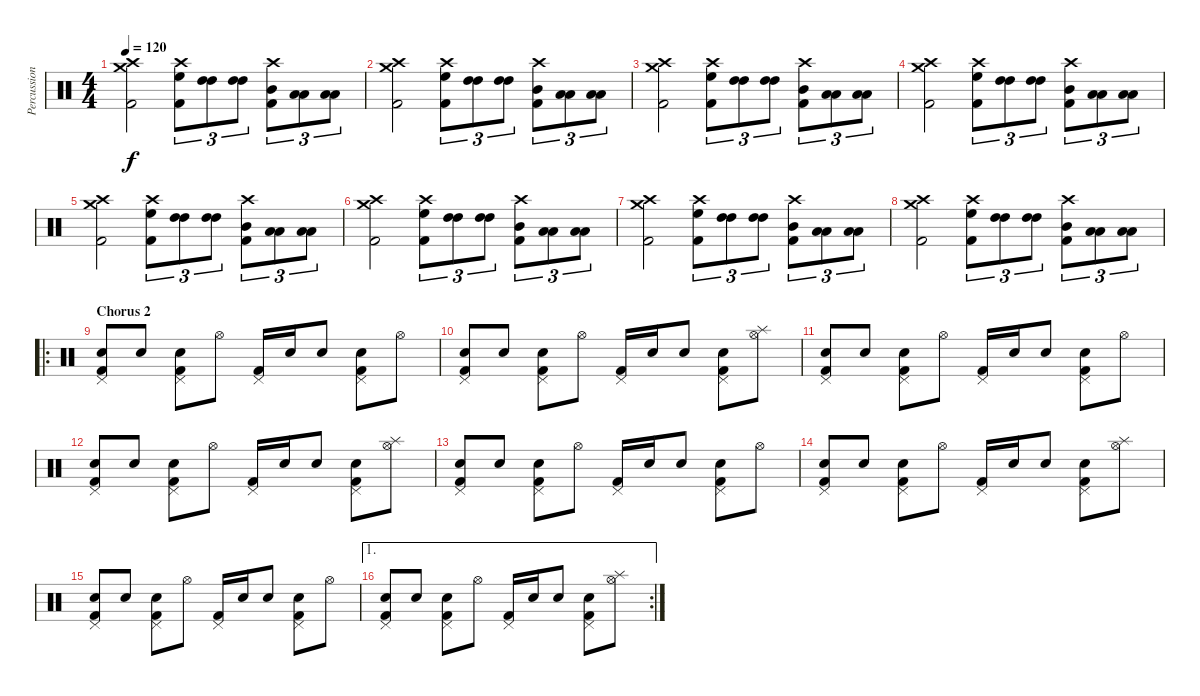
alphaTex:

\track ("Percussion" "Percussion") {instrument percussion}
\staff {score}
\articulation defaults
\ts (4 4)
\tempo 120
\clef neutral
\ks c
("Crash medium (hit)" "Crash high (hit)" "Kick (hit) 2").2{dy f} ("High Floor Tom (hit)" "Crash high (hit)" "Kick (hit) 2").8{tu (3 2)} ("High Tom (hit)" "High Tom (hit)").8{tu (3 2)} ("High Tom (hit)" "High Tom (hit)").8{tu (3 2)} ("Mid Tom (hit)" "Crash high (hit)" "Kick (hit) 2").8{tu (3 2)} ("Low Tom (hit)" "Low Tom (hit)").8{tu (3 2)} ("Low Tom (hit)" "Low Tom (hit)").8{tu (3 2)} |
("Crash medium (hit)" "Crash high (hit)" "Kick (hit) 2").2 ("High Floor Tom (hit)" "Crash high (hit)" "Kick (hit) 2").8{tu (3 2)} ("High Tom (hit)" "High Tom (hit)").8{tu (3 2)} ("High Tom (hit)" "High Tom (hit)").8{tu (3 2)} ("Mid Tom (hit)" "Crash high (hit)" "Kick (hit) 2").8{tu (3 2)} ("Low Tom (hit)" "Low Tom (hit)").8{tu (3 2)} ("Low Tom (hit)" "Low Tom (hit)").8{tu (3 2)} |
("Crash medium (hit)" "Crash high (hit)" "Kick (hit) 2").2 ("High Floor Tom (hit)" "Crash high (hit)" "Kick (hit) 2").8{tu (3 2)} ("High Tom (hit)" "High Tom (hit)").8{tu (3 2)} ("High Tom (hit)" "High Tom (hit)").8{tu (3 2)} ("Mid Tom (hit)" "Crash high (hit)" "Kick (hit) 2").8{tu (3 2)} ("Low Tom (hit)" "Low Tom (hit)").8{tu (3 2)} ("Low Tom (hit)" "Low Tom (hit)").8{tu (3 2)} |
("Crash medium (hit)" "Crash high (hit)" "Kick (hit) 2").2 ("High Floor Tom (hit)" "Crash high (hit)" "Kick (hit) 2").8{tu (3 2)} ("High Tom (hit)" "High Tom (hit)").8{tu (3 2)} ("High Tom (hit)" "High Tom (hit)").8{tu (3 2)} ("Mid Tom (hit)" "Crash high (hit)" "Kick (hit) 2").8{tu (3 2)} ("Low Tom (hit)" "Low Tom (hit)").8{tu (3 2)} ("Low Tom (hit)" "Low Tom (hit)").8{tu (3 2)} |
("Crash medium (hit)" "Crash high (hit)" "Kick (hit) 2").2 ("High Floor Tom (hit)" "Crash high (hit)" "Kick (hit) 2").8{tu (3 2)} ("High Tom (hit)" "High Tom (hit)").8{tu (3 2)} ("High Tom (hit)" "High Tom (hit)").8{tu (3 2)} ("Mid Tom (hit)" "Crash high (hit)" "Kick (hit) 2").8{tu (3 2)} ("Low Tom (hit)" "Low Tom (hit)").8{tu (3 2)} ("Low Tom (hit)" "Low Tom (hit)").8{tu (3 2)} |
("Crash medium (hit)" "Crash high (hit)" "Kick (hit) 2").2 ("High Floor Tom (hit)" "Crash high (hit)" "Kick (hit) 2").8{tu (3 2)} ("High Tom (hit)" "High Tom (hit)").8{tu (3 2)} ("High Tom (hit)" "High Tom (hit)").8{tu (3 2)} ("Mid Tom (hit)" "Crash high (hit)" "Kick (hit) 2").8{tu (3 2)} ("Low Tom (hit)" "Low Tom (hit)").8{tu (3 2)} ("Low Tom (hit)" "Low Tom (hit)").8{tu (3 2)} |
("Crash medium (hit)" "Crash high (hit)" "Kick (hit) 2").2 ("High Floor Tom (hit)" "Crash high (hit)" "Kick (hit) 2").8{tu (3 2)} ("High Tom (hit)" "High Tom (hit)").8{tu (3 2)} ("High Tom (hit)" "High Tom (hit)").8{tu (3 2)} ("Mid Tom (hit)" "Crash high (hit)" "Kick (hit) 2").8{tu (3 2)} ("Low Tom (hit)" "Low Tom (hit)").8{tu (3 2)} ("Low Tom (hit)" "Low Tom (hit)").8{tu (3 2)} |
("Crash medium (hit)" "Crash high (hit)" "Kick (hit) 2").2 ("High Floor Tom (hit)" "Crash high (hit)" "Kick (hit) 2").8{tu (3 2)} ("High Tom (hit)" "High Tom (hit)").8{tu (3 2)} ("High Tom (hit)" "High Tom (hit)").8{tu (3 2)} ("Mid Tom (hit)" "Crash high (hit)" "Kick (hit) 2").8{tu (3 2)} ("Low Tom (hit)" "Low Tom (hit)").8{tu (3 2)} ("Low Tom (hit)" "Low Tom (hit)").8{tu (3 2)} |
\ro
\section ("" "Chorus 2")
("Kick (hit) 2" "Pedal Hi-Hat (hit)" "Snare (hit) 2").8 "Snare (hit) 2".8 ("Kick (hit) 2" "Pedal Hi-Hat (hit)" "Electric Snare (hit)").8 "Hi-Hat (open)".8 ("Kick (hit) 2" "Pedal Hi-Hat (hit)").16 "Electric Snare (hit)".16 "Snare (hit) 2".8 ("Kick (hit) 2" "Pedal Hi-Hat (hit)" "Electric Snare (hit)").8 "Hi-Hat (open)".8 |
("Kick (hit) 2" "Pedal Hi-Hat (hit)" "Snare (hit) 2").8 "Snare (hit) 2".8 ("Kick (hit) 2" "Pedal Hi-Hat (hit)" "Electric Snare (hit)").8 "Hi-Hat (open)".8 ("Kick (hit) 2" "Pedal Hi-Hat (hit)").16 "Electric Snare (hit)".16 "Snare (hit) 2".8 ("Kick (hit) 2" "Pedal Hi-Hat (hit)" "Electric Snare (hit)").8 ("Hi-Hat (open)" "Splash (hit)").8 |
("Kick (hit) 2" "Pedal Hi-Hat (hit)" "Snare (hit) 2").8 "Snare (hit) 2".8 ("Kick (hit) 2" "Pedal Hi-Hat (hit)" "Electric Snare (hit)").8 "Hi-Hat (open)".8 ("Kick (hit) 2" "Pedal Hi-Hat (hit)").16 "Electric Snare (hit)".16 "Snare (hit) 2".8 ("Kick (hit) 2" "Pedal Hi-Hat (hit)" "Electric Snare (hit)").8 "Hi-Hat (open)".8 |
("Kick (hit) 2" "Pedal Hi-Hat (hit)" "Snare (hit) 2").8 "Snare (hit) 2".8 ("Kick (hit) 2" "Pedal Hi-Hat (hit)" "Electric Snare (hit)").8 "Hi-Hat (open)".8 ("Kick (hit) 2" "Pedal Hi-Hat (hit)").16 "Electric Snare (hit)".16 "Snare (hit) 2".8 ("Kick (hit) 2" "Pedal Hi-Hat (hit)" "Electric Snare (hit)").8 ("Hi-Hat (open)" "Splash (hit)").8 |
("Kick (hit) 2" "Pedal Hi-Hat (hit)" "Snare (hit) 2").8 "Snare (hit) 2".8 ("Kick (hit) 2" "Pedal Hi-Hat (hit)" "Electric Snare (hit)").8 "Hi-Hat (open)".8 ("Kick (hit) 2" "Pedal Hi-Hat (hit)").16 "Electric Snare (hit)".16 "Snare (hit) 2".8 ("Kick (hit) 2" "Pedal Hi-Hat (hit)" "Electric Snare (hit)").8 "Hi-Hat (open)".8 |
("Kick (hit) 2" "Pedal Hi-Hat (hit)" "Snare (hit) 2").8 "Snare (hit) 2".8 ("Kick (hit) 2" "Pedal Hi-Hat (hit)" "Electric Snare (hit)").8 "Hi-Hat (open)".8 ("Kick (hit) 2" "Pedal Hi-Hat (hit)").16 "Electric Snare (hit)".16 "Snare (hit) 2".8 ("Kick (hit) 2" "Pedal Hi-Hat (hit)" "Electric Snare (hit)").8 ("Hi-Hat (open)" "Splash (hit)").8 |
("Kick (hit) 2" "Pedal Hi-Hat (hit)" "Snare (hit) 2").8 "Snare (hit) 2".8 ("Kick (hit) 2" "Pedal Hi-Hat (hit)" "Electric Snare (hit)").8 "Hi-Hat (open)".8 ("Kick (hit) 2" "Pedal Hi-Hat (hit)").16 "Electric Snare (hit)".16 "Snare (hit) 2".8 ("Kick (hit) 2" "Pedal Hi-Hat (hit)" "Electric Snare (hit)").8 "Hi-Hat (open)".8 |
\ae 1
\rc 2
("Kick (hit) 2" "Pedal Hi-Hat (hit)" "Snare (hit) 2").8 "Snare (hit) 2".8 ("Kick (hit) 2" "Pedal Hi-Hat (hit)" "Electric Snare (hit)").8 "Hi-Hat (open)".8 ("Kick (hit) 2" "Pedal Hi-Hat (hit)").16 "Electric Snare (hit)".16 "Snare (hit) 2".8 ("Kick (hit) 2" "Pedal Hi-Hat (hit)" "Electric Snare (hit)").8 ("Hi-Hat (open)" "Splash (hit)").8
